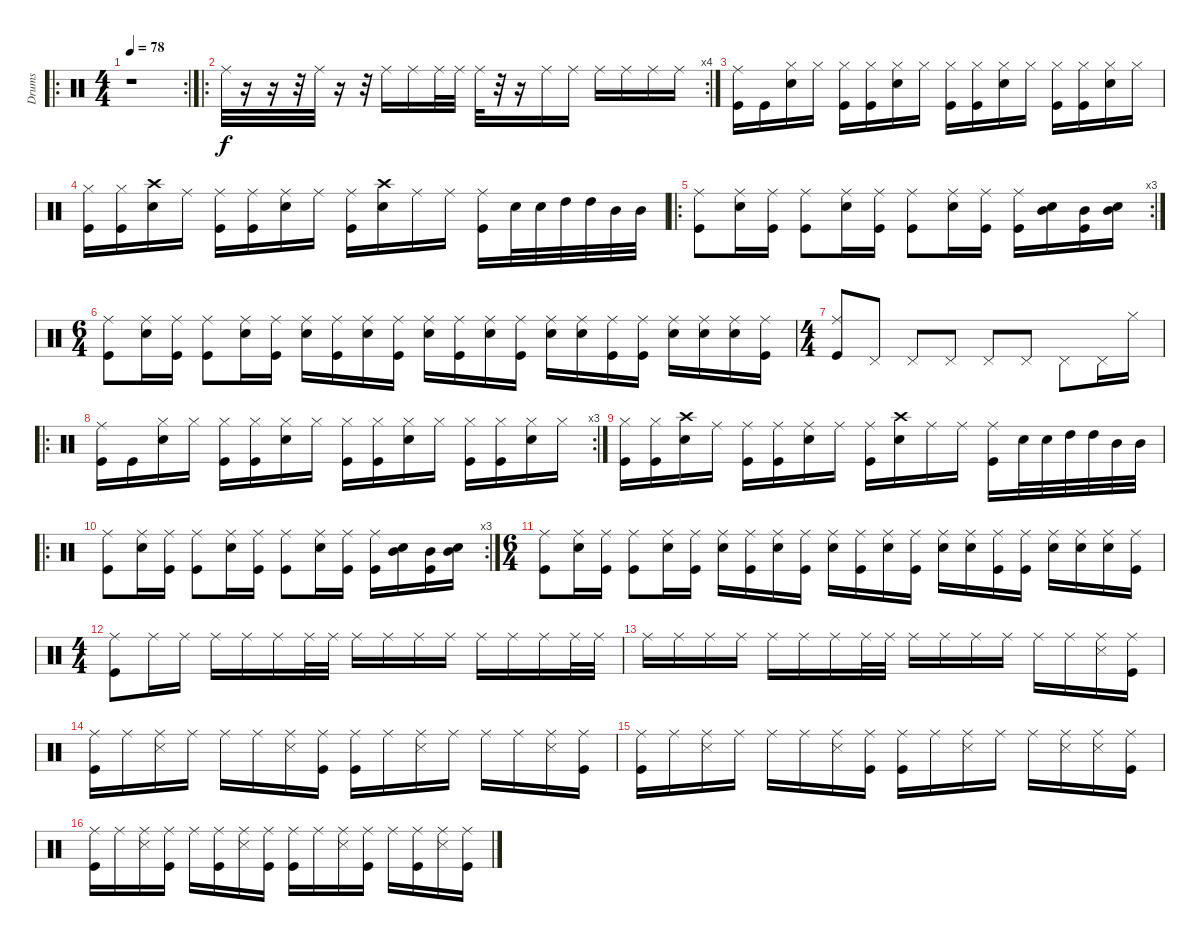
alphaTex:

\track ("Drums" "Drums") {instrument percussion}
\staff {score}
\articulation defaults
\ro
\rc 2
\ts (4 4)
\tempo 78
\clef neutral
\ks c
r.1{dy f} |
\ro
\rc 4 "Ride (middle)".32
r.16 r.16 r.32 "Ride (middle)".32 r.16 r.32 "Ride (middle)".16 "Ride (middle)".16 "Ride (middle)".32 "Ride (middle)".32 "Ride (middle)".32 r.32 r.16 "Ride (middle)".16 "Ride (middle)".16 "Ride (middle)".16 "Ride (middle)".16 "Ride (middle)".16 "Ride (middle)".16 |
("Ride (middle)" "Kick (hit)").16 "Kick (hit)".16 ("Hi-Hat (closed)" "Snare (hit) 2").16 "Hi-Hat (closed)".16 ("Hi-Hat (closed)" "Kick (hit)").16 ("Hi-Hat (closed)" "Kick (hit)").16 ("Hi-Hat (closed)" "Snare (hit) 2").16 "Hi-Hat (closed)".16 ("Hi-Hat (closed)" "Kick (hit)").16 ("Hi-Hat (closed)" "Kick (hit)").16 ("Hi-Hat (closed)" "Snare (hit) 2").16 "Hi-Hat (closed)".16 ("Hi-Hat (closed)" "Kick (hit)").16 ("Hi-Hat (closed)" "Kick (hit)").16 ("Hi-Hat (closed)" "Snare (hit) 2").16 "Hi-Hat (closed)".16 |
("Hi-Hat (closed)" "Kick (hit)").16 ("Hi-Hat (closed)" "Kick (hit)").16 ("Crash high (hit)" "Snare (hit) 2").16 "Ride (middle)".16 ("Ride (middle)" "Kick (hit)").16 ("Ride (middle)" "Kick (hit)").16 ("Ride (middle)" "Snare (hit) 2").16 "Ride (middle)".16 ("Ride (middle)" "Kick (hit)").16 ("Crash high (hit)" "Snare (hit) 2").16 "Ride (middle)".16 "Ride (middle)".16 ("Ride (middle)" "Kick (hit)").16 "Snare (hit) 2".32 "Snare (hit) 2".32 "High Tom (hit)".32 "High Tom (hit)".32 "Mid Tom (hit)".32 "Mid Tom (hit)".32 |
\ro
\rc 3
("Ride (middle)" "Kick (hit)").8 ("Ride (middle)" "Snare (hit) 2").16 ("Ride (middle)" "Kick (hit)").16 ("Ride (middle)" "Kick (hit)").8 ("Ride (middle)" "Snare (hit) 2").16 ("Ride (middle)" "Kick (hit)").16 ("Ride (middle)" "Kick (hit)").8 ("Ride (middle)" "Snare (hit) 2").16 ("Ride (middle)" "Kick (hit)").16 ("Ride (middle)" "Kick (hit)").16 ("Snare (hit) 2" "Mid Tom (hit)").16 ("Mid Tom (hit)" "Kick (hit)").16 ("Snare (hit) 2" "Mid Tom (hit)").16 |
\ts (6 4)
("Ride (middle)" "Kick (hit)").8 ("Ride (middle)" "Snare (hit) 2").16 ("Ride (middle)" "Kick (hit)").16 ("Ride (middle)" "Kick (hit)").8 ("Ride (middle)" "Snare (hit) 2").16 ("Ride (middle)" "Kick (hit)").16 ("Ride (middle)" "Snare (hit) 2").16 ("Ride (middle)" "Kick (hit)").16 ("Ride (middle)" "Snare (hit) 2").16 ("Ride (middle)" "Kick (hit)").16 ("Ride (middle)" "Snare (hit) 2").16 ("Ride (middle)" "Kick (hit)").16 ("Ride (middle)" "Snare (hit) 2").16 ("Ride (middle)" "Kick (hit)").16 ("Ride (middle)" "Snare (hit) 2").16 ("Ride (middle)" "Snare (hit) 2").16 ("Ride (middle)" "Kick (hit)").16 ("Ride (middle)" "Kick (hit)").16 ("Ride (middle)" "Snare (hit) 2").16 ("Ride (middle)" "Snare (hit) 2").16 ("Ride (middle)" "Snare (hit) 2").16 ("Ride (middle)" "Kick (hit)").16 |
\ts (4 4)
("Ride (middle)" "Kick (hit)").8 "Pedal Hi-Hat (hit)".8 "Pedal Hi-Hat (hit)".8 "Pedal Hi-Hat (hit)".8 "Pedal Hi-Hat (hit)".8 "Pedal Hi-Hat (hit)".8 "Pedal Hi-Hat (hit)".8 "Pedal Hi-Hat (hit)".16 "Hi-Hat (closed)".16 |
\ro
\rc 3
("Ride (middle)" "Kick (hit)").16 "Kick (hit)".16 ("Hi-Hat (closed)" "Snare (hit) 2").16 "Hi-Hat (closed)".16 ("Hi-Hat (closed)" "Kick (hit)").16 ("Hi-Hat (closed)" "Kick (hit)").16 ("Hi-Hat (closed)" "Snare (hit) 2").16 "Hi-Hat (closed)".16 ("Hi-Hat (closed)" "Kick (hit)").16 ("Hi-Hat (closed)" "Kick (hit)").16 ("Hi-Hat (closed)" "Snare (hit) 2").16 "Hi-Hat (closed)".16 ("Hi-Hat (closed)" "Kick (hit)").16 ("Hi-Hat (closed)" "Kick (hit)").16 ("Hi-Hat (closed)" "Snare (hit) 2").16 "Hi-Hat (closed)".16 |
("Hi-Hat (closed)" "Kick (hit)").16 ("Hi-Hat (closed)" "Kick (hit)").16 ("Crash high (hit)" "Snare (hit) 2").16 "Ride (middle)".16 ("Ride (middle)" "Kick (hit)").16 ("Ride (middle)" "Kick (hit)").16 ("Ride (middle)" "Snare (hit) 2").16 "Ride (middle)".16 ("Ride (middle)" "Kick (hit)").16 ("Crash high (hit)" "Snare (hit) 2").16 "Ride (middle)".16 "Ride (middle)".16 ("Ride (middle)" "Kick (hit)").16 "Snare (hit) 2".32 "Snare (hit) 2".32 "High Tom (hit)".32 "High Tom (hit)".32 "Mid Tom (hit)".32 "Mid Tom (hit)".32 |
\ro
\rc 3
("Ride (middle)" "Kick (hit)").8 ("Ride (middle)" "Snare (hit) 2").16 ("Ride (middle)" "Kick (hit)").16 ("Ride (middle)" "Kick (hit)").8 ("Ride (middle)" "Snare (hit) 2").16 ("Ride (middle)" "Kick (hit)").16 ("Ride (middle)" "Kick (hit)").8 ("Ride (middle)" "Snare (hit) 2").16 ("Ride (middle)" "Kick (hit)").16 ("Ride (middle)" "Kick (hit)").16 ("Snare (hit) 2" "Mid Tom (hit)").16 ("Mid Tom (hit)" "Kick (hit)").16 ("Snare (hit) 2" "Mid Tom (hit)").16 |
\ts (6 4)
("Ride (middle)" "Kick (hit)").8 ("Ride (middle)" "Snare (hit) 2").16 ("Ride (middle)" "Kick (hit)").16 ("Ride (middle)" "Kick (hit)").8 ("Ride (middle)" "Snare (hit) 2").16 ("Ride (middle)" "Kick (hit)").16 ("Ride (middle)" "Snare (hit) 2").16 ("Ride (middle)" "Kick (hit)").16 ("Ride (middle)" "Snare (hit) 2").16 ("Ride (middle)" "Kick (hit)").16 ("Ride (middle)" "Snare (hit) 2").16 ("Ride (middle)" "Kick (hit)").16 ("Ride (middle)" "Snare (hit) 2").16 ("Ride (middle)" "Kick (hit)").16 ("Ride (middle)" "Snare (hit) 2").16 ("Ride (middle)" "Snare (hit) 2").16 ("Ride (middle)" "Kick (hit)").16 ("Ride (middle)" "Kick (hit)").16 ("Ride (middle)" "Snare (hit) 2").16 ("Ride (middle)" "Snare (hit) 2").16 ("Ride (middle)" "Snare (hit) 2").16 ("Ride (middle)" "Kick (hit)").16 |
\ts (4 4)
("Ride (middle)" "Kick (hit)").8 "Ride (middle)".16 "Ride (middle)".16 "Ride (middle)".16 "Ride (middle)".16 "Ride (middle)".16 "Ride (middle)".32 "Ride (middle)".32 "Ride (middle)".16 "Ride (middle)".16 "Ride (middle)".16 "Ride (middle)".16 "Ride (middle)".16 "Ride (middle)".16 "Ride (middle)".16 "Ride (middle)".32 "Ride (middle)".32 |
"Ride (middle)".16 "Ride (middle)".16 "Ride (middle)".16 "Ride (middle)".16 "Ride (middle)".16 "Ride (middle)".16 "Ride (middle)".16 "Ride (middle)".32 "Ride (middle)".32 "Ride (middle)".16 "Ride (middle)".16 "Ride (middle)".16 "Ride (middle)".16 "Ride (middle)".16 "Ride (middle)".16 ("Ride (middle)" "Snare (side stick) 3").16 ("Ride (middle)" "Kick (hit)").16 |
("Ride (middle)" "Kick (hit)").16 "Ride (middle)".16 ("Ride (middle)" "Snare (side stick) 3").16 "Ride (middle)".16 "Ride (middle)".16 "Ride (middle)".16 ("Ride (middle)" "Snare (side stick) 3").16 ("Ride (middle)" "Kick (hit)").16 ("Ride (middle)" "Kick (hit)").16 "Ride (middle)".16 ("Ride (middle)" "Snare (side stick) 3").16 "Ride (middle)".16 "Ride (middle)".16 "Ride (middle)".16 ("Ride (middle)" "Snare (side stick) 3").16 ("Ride (middle)" "Kick (hit)").16 |
("Ride (middle)" "Kick (hit)").16 "Ride (middle)".16 ("Ride (middle)" "Snare (side stick) 3").16 "Ride (middle)".16 "Ride (middle)".16 "Ride (middle)".16 ("Ride (middle)" "Snare (side stick) 3").16 ("Ride (middle)" "Kick (hit)").16 ("Ride (middle)" "Kick (hit)").16 "Ride (middle)".16 ("Ride (middle)" "Snare (side stick) 3").16 "Ride (middle)".16 "Ride (middle)".16 ("Ride (middle)" "Snare (side stick) 3").16 ("Ride (middle)" "Snare (side stick) 3").16 ("Ride (middle)" "Kick (hit)").16 |
("Ride (middle)" "Kick (hit)").16 "Ride (middle)".16 ("Ride (middle)" "Snare (side stick) 3").16 ("Ride (middle)" "Kick (hit)").16 "Ride (middle)".16 ("Ride (middle)" "Kick (hit)").16 ("Ride (middle)" "Snare (side stick) 3").16 ("Ride (middle)" "Kick (hit)").16 ("Ride (middle)" "Kick (hit)").16 "Ride (middle)".16 ("Ride (middle)" "Snare (side stick) 3").16 ("Ride (middle)" "Kick (hit)").16 "Ride (middle)".16 ("Ride (middle)" "Kick (hit)").16 ("Ride (middle)" "Snare (side stick) 3").16 ("Ride (middle)" "Kick (hit)").16
